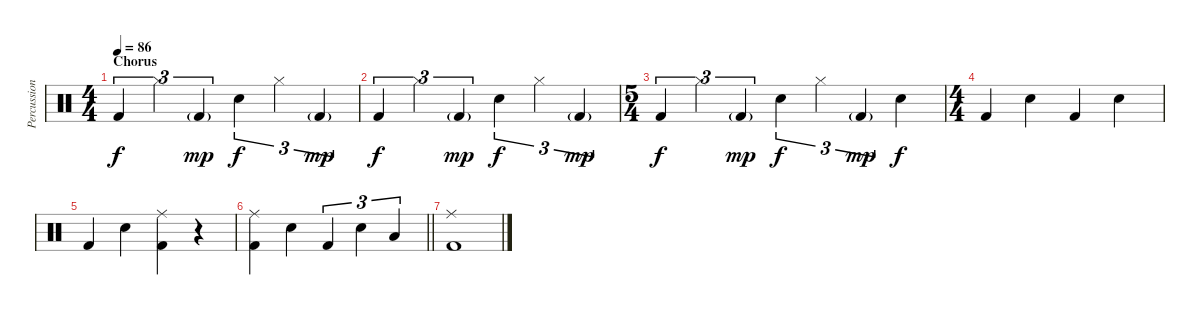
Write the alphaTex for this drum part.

\track ("Percussion" "Percussion") {instrument percussion}
\staff {score}
\articulation defaults
\ts (4 4)
\section ("" "Chorus")
\tempo 86
\clef neutral
\ks c "Kick (hit) 2".4{tu (3 2) dy f} "Hi-Hat (closed)".4{tu (3 2)} "Kick (hit) 2"{g}.4{tu (3 2) dy mp} "Snare (hit) 2".4{tu (3 2) dy f} "Hi-Hat (closed)".4{tu (3 2)} "Kick (hit) 2"{g}.4{tu (3 2) dy mp}
|
"Kick (hit) 2".4{tu (3 2) dy f} "Hi-Hat (closed)".4{tu (3 2)} "Kick (hit) 2"{g}.4{tu (3 2) dy mp} "Snare (hit) 2".4{tu (3 2) dy f} "Hi-Hat (closed)".4{tu (3 2)} "Kick (hit) 2"{g}.4{tu (3 2) dy mp} |
\ts (5 4)
"Kick (hit) 2".4{tu (3 2) dy f} "Hi-Hat (closed)".4{tu (3 2)} "Kick (hit) 2"{g}.4{tu (3 2) dy mp} "Snare (hit) 2".4{tu (3 2) dy f} "Hi-Hat (closed)".4{tu (3 2)} "Kick (hit) 2"{g}.4{tu (3 2) dy mp} "Snare (hit) 2".4{dy f} |
\ts (4 4)
"Kick (hit) 2".4 "Snare (hit) 2".4 "Kick (hit) 2".4 "Snare (hit) 2".4 |
"Kick (hit) 2".4 "Snare (hit) 2".4 ("Ride (middle)" "Kick (hit) 2").4 r.4 |
\barLineRight lightlight
("Ride (middle)" "Kick (hit) 2").4 "Snare (hit) 2".4 "Kick (hit) 2".4{tu (3 2)} "Snare (hit) 2".4{tu (3 2)} "Low Tom (hit)".4{tu (3 2)} |
("Ride (middle)" "Kick (hit) 2").1
